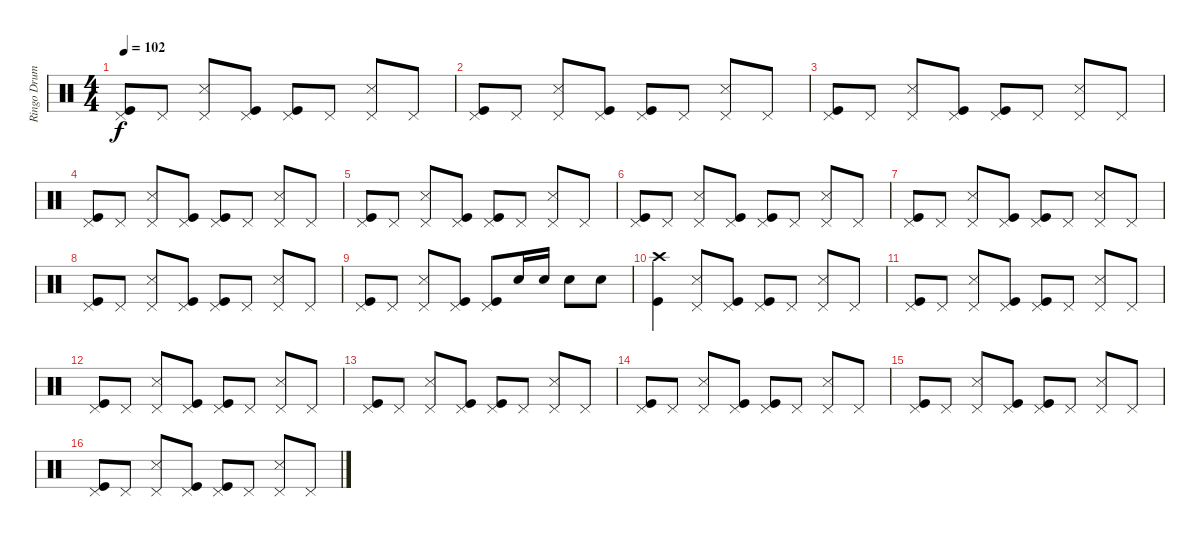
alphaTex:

\track ("Ringo Drums" "Ringo Drum") {instrument percussion}
\staff {score}
\articulation defaults
\ts (4 4)
\tempo 102
\clef neutral
\ks c
("Pedal Hi-Hat (hit)" "Kick (hit)").8{dy f} "Pedal Hi-Hat (hit)".8 ("Pedal Hi-Hat (hit)" "Snare (side stick) 3").8 ("Pedal Hi-Hat (hit)" "Kick (hit)").8 ("Pedal Hi-Hat (hit)" "Kick (hit)").8 "Pedal Hi-Hat (hit)".8 ("Pedal Hi-Hat (hit)" "Snare (side stick) 3").8 "Pedal Hi-Hat (hit)".8 |
("Pedal Hi-Hat (hit)" "Kick (hit)").8 "Pedal Hi-Hat (hit)".8 ("Pedal Hi-Hat (hit)" "Snare (side stick) 3").8 ("Pedal Hi-Hat (hit)" "Kick (hit)").8 ("Pedal Hi-Hat (hit)" "Kick (hit)").8 "Pedal Hi-Hat (hit)".8 ("Pedal Hi-Hat (hit)" "Snare (side stick) 3").8 "Pedal Hi-Hat (hit)".8 |
("Pedal Hi-Hat (hit)" "Kick (hit)").8 "Pedal Hi-Hat (hit)".8 ("Pedal Hi-Hat (hit)" "Snare (side stick) 3").8 ("Pedal Hi-Hat (hit)" "Kick (hit)").8 ("Pedal Hi-Hat (hit)" "Kick (hit)").8 "Pedal Hi-Hat (hit)".8 ("Pedal Hi-Hat (hit)" "Snare (side stick) 3").8 "Pedal Hi-Hat (hit)".8 |
("Pedal Hi-Hat (hit)" "Kick (hit)").8 "Pedal Hi-Hat (hit)".8 ("Pedal Hi-Hat (hit)" "Snare (side stick) 3").8 ("Pedal Hi-Hat (hit)" "Kick (hit)").8 ("Pedal Hi-Hat (hit)" "Kick (hit)").8 "Pedal Hi-Hat (hit)".8 ("Pedal Hi-Hat (hit)" "Snare (side stick) 3").8 "Pedal Hi-Hat (hit)".8 |
("Pedal Hi-Hat (hit)" "Kick (hit)").8 "Pedal Hi-Hat (hit)".8 ("Pedal Hi-Hat (hit)" "Snare (side stick) 3").8 ("Pedal Hi-Hat (hit)" "Kick (hit)").8 ("Pedal Hi-Hat (hit)" "Kick (hit)").8 "Pedal Hi-Hat (hit)".8 ("Pedal Hi-Hat (hit)" "Snare (side stick) 3").8 "Pedal Hi-Hat (hit)".8 |
("Pedal Hi-Hat (hit)" "Kick (hit)").8 "Pedal Hi-Hat (hit)".8 ("Pedal Hi-Hat (hit)" "Snare (side stick) 3").8 ("Pedal Hi-Hat (hit)" "Kick (hit)").8 ("Pedal Hi-Hat (hit)" "Kick (hit)").8 "Pedal Hi-Hat (hit)".8 ("Pedal Hi-Hat (hit)" "Snare (side stick) 3").8 "Pedal Hi-Hat (hit)".8 |
("Pedal Hi-Hat (hit)" "Kick (hit)").8 "Pedal Hi-Hat (hit)".8 ("Pedal Hi-Hat (hit)" "Snare (side stick) 3").8 ("Pedal Hi-Hat (hit)" "Kick (hit)").8 ("Pedal Hi-Hat (hit)" "Kick (hit)").8 "Pedal Hi-Hat (hit)".8 ("Pedal Hi-Hat (hit)" "Snare (side stick) 3").8 "Pedal Hi-Hat (hit)".8 |
("Pedal Hi-Hat (hit)" "Kick (hit)").8 "Pedal Hi-Hat (hit)".8 ("Pedal Hi-Hat (hit)" "Snare (side stick) 3").8 ("Pedal Hi-Hat (hit)" "Kick (hit)").8 ("Pedal Hi-Hat (hit)" "Kick (hit)").8 "Pedal Hi-Hat (hit)".8 ("Pedal Hi-Hat (hit)" "Snare (side stick) 3").8 "Pedal Hi-Hat (hit)".8 |
("Pedal Hi-Hat (hit)" "Kick (hit)").8 "Pedal Hi-Hat (hit)".8 ("Pedal Hi-Hat (hit)" "Snare (side stick) 3").8 ("Pedal Hi-Hat (hit)" "Kick (hit)").8 ("Pedal Hi-Hat (hit)" "Kick (hit)").8 "Snare (hit) 2".16 "Snare (hit) 2".16 "Snare (hit) 2".8 "Snare (hit) 2".8 |
("Crash high (hit)" "Kick (hit)").4 ("Pedal Hi-Hat (hit)" "Snare (side stick) 3").8 ("Pedal Hi-Hat (hit)" "Kick (hit)").8 ("Pedal Hi-Hat (hit)" "Kick (hit)").8 "Pedal Hi-Hat (hit)".8 ("Pedal Hi-Hat (hit)" "Snare (side stick) 3").8 "Pedal Hi-Hat (hit)".8 |
("Pedal Hi-Hat (hit)" "Kick (hit)").8 "Pedal Hi-Hat (hit)".8 ("Pedal Hi-Hat (hit)" "Snare (side stick) 3").8 ("Pedal Hi-Hat (hit)" "Kick (hit)").8 ("Pedal Hi-Hat (hit)" "Kick (hit)").8 "Pedal Hi-Hat (hit)".8 ("Pedal Hi-Hat (hit)" "Snare (side stick) 3").8 "Pedal Hi-Hat (hit)".8 |
("Pedal Hi-Hat (hit)" "Kick (hit)").8 "Pedal Hi-Hat (hit)".8 ("Pedal Hi-Hat (hit)" "Snare (side stick) 3").8 ("Pedal Hi-Hat (hit)" "Kick (hit)").8 ("Pedal Hi-Hat (hit)" "Kick (hit)").8 "Pedal Hi-Hat (hit)".8 ("Pedal Hi-Hat (hit)" "Snare (side stick) 3").8 "Pedal Hi-Hat (hit)".8 |
("Pedal Hi-Hat (hit)" "Kick (hit)").8 "Pedal Hi-Hat (hit)".8 ("Pedal Hi-Hat (hit)" "Snare (side stick) 3").8 ("Pedal Hi-Hat (hit)" "Kick (hit)").8 ("Pedal Hi-Hat (hit)" "Kick (hit)").8 "Pedal Hi-Hat (hit)".8 ("Pedal Hi-Hat (hit)" "Snare (side stick) 3").8 "Pedal Hi-Hat (hit)".8 |
("Pedal Hi-Hat (hit)" "Kick (hit)").8 "Pedal Hi-Hat (hit)".8 ("Pedal Hi-Hat (hit)" "Snare (side stick) 3").8 ("Pedal Hi-Hat (hit)" "Kick (hit)").8 ("Pedal Hi-Hat (hit)" "Kick (hit)").8 "Pedal Hi-Hat (hit)".8 ("Pedal Hi-Hat (hit)" "Snare (side stick) 3").8 "Pedal Hi-Hat (hit)".8 |
("Pedal Hi-Hat (hit)" "Kick (hit)").8 "Pedal Hi-Hat (hit)".8 ("Pedal Hi-Hat (hit)" "Snare (side stick) 3").8 ("Pedal Hi-Hat (hit)" "Kick (hit)").8 ("Pedal Hi-Hat (hit)" "Kick (hit)").8 "Pedal Hi-Hat (hit)".8 ("Pedal Hi-Hat (hit)" "Snare (side stick) 3").8 "Pedal Hi-Hat (hit)".8 |
("Pedal Hi-Hat (hit)" "Kick (hit)").8 "Pedal Hi-Hat (hit)".8 ("Pedal Hi-Hat (hit)" "Snare (side stick) 3").8 ("Pedal Hi-Hat (hit)" "Kick (hit)").8 ("Pedal Hi-Hat (hit)" "Kick (hit)").8 "Pedal Hi-Hat (hit)".8 ("Pedal Hi-Hat (hit)" "Snare (side stick) 3").8 "Pedal Hi-Hat (hit)".8
